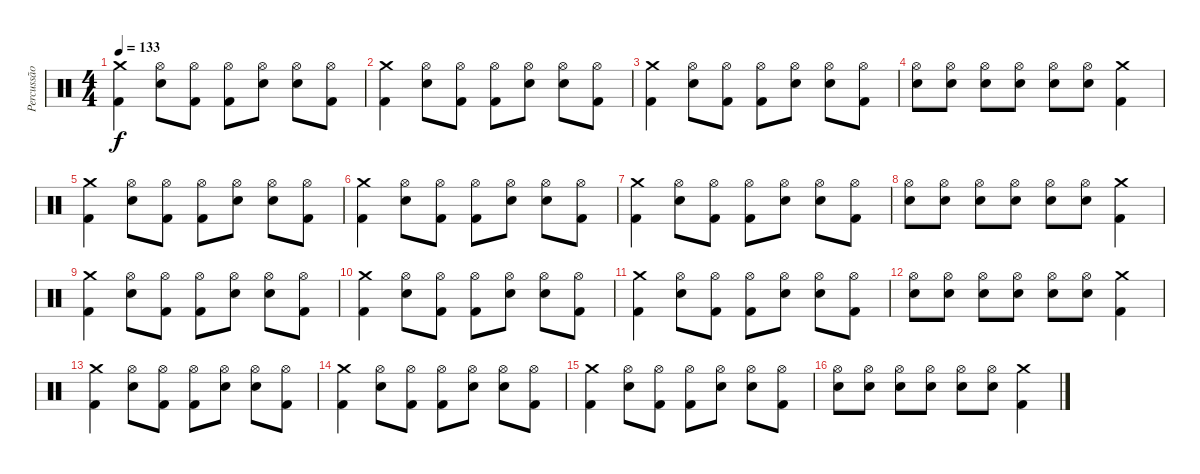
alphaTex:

\track ("Percussão" "Percussão") {instrument percussion}
\staff {score}
\articulation defaults
\ts (4 4)
\tempo 133
\clef neutral
\ks c
("Crash medium (hit)" "Kick (hit) 2").4{dy f} ("Electric Snare (hit)" "Hi-Hat (open)").8 ("Kick (hit) 2" "Hi-Hat (open)").8 ("Kick (hit) 2" "Hi-Hat (open)").8 ("Electric Snare (hit)" "Hi-Hat (open)").8 ("Electric Snare (hit)" "Hi-Hat (open)").8 ("Kick (hit) 2" "Hi-Hat (open)").8 |
("Crash medium (hit)" "Kick (hit) 2").4 ("Electric Snare (hit)" "Hi-Hat (open)").8 ("Kick (hit) 2" "Hi-Hat (open)").8 ("Kick (hit) 2" "Hi-Hat (open)").8 ("Electric Snare (hit)" "Hi-Hat (open)").8 ("Electric Snare (hit)" "Hi-Hat (open)").8 ("Kick (hit) 2" "Hi-Hat (open)").8 |
("Crash medium (hit)" "Kick (hit) 2").4 ("Electric Snare (hit)" "Hi-Hat (open)").8 ("Kick (hit) 2" "Hi-Hat (open)").8 ("Kick (hit) 2" "Hi-Hat (open)").8 ("Electric Snare (hit)" "Hi-Hat (open)").8 ("Electric Snare (hit)" "Hi-Hat (open)").8 ("Kick (hit) 2" "Hi-Hat (open)").8 |
("Electric Snare (hit)" "Hi-Hat (open)").8 ("Electric Snare (hit)" "Hi-Hat (open)").8 ("Electric Snare (hit)" "Hi-Hat (open)").8 ("Electric Snare (hit)" "Hi-Hat (open)").8 ("Electric Snare (hit)" "Hi-Hat (open)").8 ("Electric Snare (hit)" "Hi-Hat (open)").8 ("Crash medium (hit)" "Kick (hit) 2").4 |
("Crash medium (hit)" "Kick (hit) 2").4 ("Electric Snare (hit)" "Hi-Hat (open)").8 ("Kick (hit) 2" "Hi-Hat (open)").8 ("Kick (hit) 2" "Hi-Hat (open)").8 ("Electric Snare (hit)" "Hi-Hat (open)").8 ("Electric Snare (hit)" "Hi-Hat (open)").8 ("Kick (hit) 2" "Hi-Hat (open)").8 |
("Crash medium (hit)" "Kick (hit) 2").4 ("Electric Snare (hit)" "Hi-Hat (open)").8 ("Kick (hit) 2" "Hi-Hat (open)").8 ("Kick (hit) 2" "Hi-Hat (open)").8 ("Electric Snare (hit)" "Hi-Hat (open)").8 ("Electric Snare (hit)" "Hi-Hat (open)").8 ("Kick (hit) 2" "Hi-Hat (open)").8 |
("Crash medium (hit)" "Kick (hit) 2").4 ("Electric Snare (hit)" "Hi-Hat (open)").8 ("Kick (hit) 2" "Hi-Hat (open)").8 ("Kick (hit) 2" "Hi-Hat (open)").8 ("Electric Snare (hit)" "Hi-Hat (open)").8 ("Electric Snare (hit)" "Hi-Hat (open)").8 ("Kick (hit) 2" "Hi-Hat (open)").8 |
("Electric Snare (hit)" "Hi-Hat (open)").8 ("Electric Snare (hit)" "Hi-Hat (open)").8 ("Electric Snare (hit)" "Hi-Hat (open)").8 ("Electric Snare (hit)" "Hi-Hat (open)").8 ("Electric Snare (hit)" "Hi-Hat (open)").8 ("Electric Snare (hit)" "Hi-Hat (open)").8 ("Crash medium (hit)" "Kick (hit) 2").4 |
("Crash medium (hit)" "Kick (hit) 2").4 ("Electric Snare (hit)" "Hi-Hat (open)").8 ("Kick (hit) 2" "Hi-Hat (open)").8 ("Kick (hit) 2" "Hi-Hat (open)").8 ("Electric Snare (hit)" "Hi-Hat (open)").8 ("Electric Snare (hit)" "Hi-Hat (open)").8 ("Kick (hit) 2" "Hi-Hat (open)").8 |
("Crash medium (hit)" "Kick (hit) 2").4 ("Electric Snare (hit)" "Hi-Hat (open)").8 ("Kick (hit) 2" "Hi-Hat (open)").8 ("Kick (hit) 2" "Hi-Hat (open)").8 ("Electric Snare (hit)" "Hi-Hat (open)").8 ("Electric Snare (hit)" "Hi-Hat (open)").8 ("Kick (hit) 2" "Hi-Hat (open)").8 |
("Crash medium (hit)" "Kick (hit) 2").4 ("Electric Snare (hit)" "Hi-Hat (open)").8 ("Kick (hit) 2" "Hi-Hat (open)").8 ("Kick (hit) 2" "Hi-Hat (open)").8 ("Electric Snare (hit)" "Hi-Hat (open)").8 ("Electric Snare (hit)" "Hi-Hat (open)").8 ("Kick (hit) 2" "Hi-Hat (open)").8 |
("Electric Snare (hit)" "Hi-Hat (open)").8 ("Electric Snare (hit)" "Hi-Hat (open)").8 ("Electric Snare (hit)" "Hi-Hat (open)").8 ("Electric Snare (hit)" "Hi-Hat (open)").8 ("Electric Snare (hit)" "Hi-Hat (open)").8 ("Electric Snare (hit)" "Hi-Hat (open)").8 ("Crash medium (hit)" "Kick (hit) 2").4 |
("Crash medium (hit)" "Kick (hit) 2").4 ("Electric Snare (hit)" "Hi-Hat (open)").8 ("Kick (hit) 2" "Hi-Hat (open)").8 ("Kick (hit) 2" "Hi-Hat (open)").8 ("Electric Snare (hit)" "Hi-Hat (open)").8 ("Electric Snare (hit)" "Hi-Hat (open)").8 ("Kick (hit) 2" "Hi-Hat (open)").8 |
("Crash medium (hit)" "Kick (hit) 2").4 ("Electric Snare (hit)" "Hi-Hat (open)").8 ("Kick (hit) 2" "Hi-Hat (open)").8 ("Kick (hit) 2" "Hi-Hat (open)").8 ("Electric Snare (hit)" "Hi-Hat (open)").8 ("Electric Snare (hit)" "Hi-Hat (open)").8 ("Kick (hit) 2" "Hi-Hat (open)").8 |
("Crash medium (hit)" "Kick (hit) 2").4 ("Electric Snare (hit)" "Hi-Hat (open)").8 ("Kick (hit) 2" "Hi-Hat (open)").8 ("Kick (hit) 2" "Hi-Hat (open)").8 ("Electric Snare (hit)" "Hi-Hat (open)").8 ("Electric Snare (hit)" "Hi-Hat (open)").8 ("Kick (hit) 2" "Hi-Hat (open)").8 |
("Electric Snare (hit)" "Hi-Hat (open)").8 ("Electric Snare (hit)" "Hi-Hat (open)").8 ("Electric Snare (hit)" "Hi-Hat (open)").8 ("Electric Snare (hit)" "Hi-Hat (open)").8 ("Electric Snare (hit)" "Hi-Hat (open)").8 ("Electric Snare (hit)" "Hi-Hat (open)").8 ("Crash medium (hit)" "Kick (hit) 2").4
